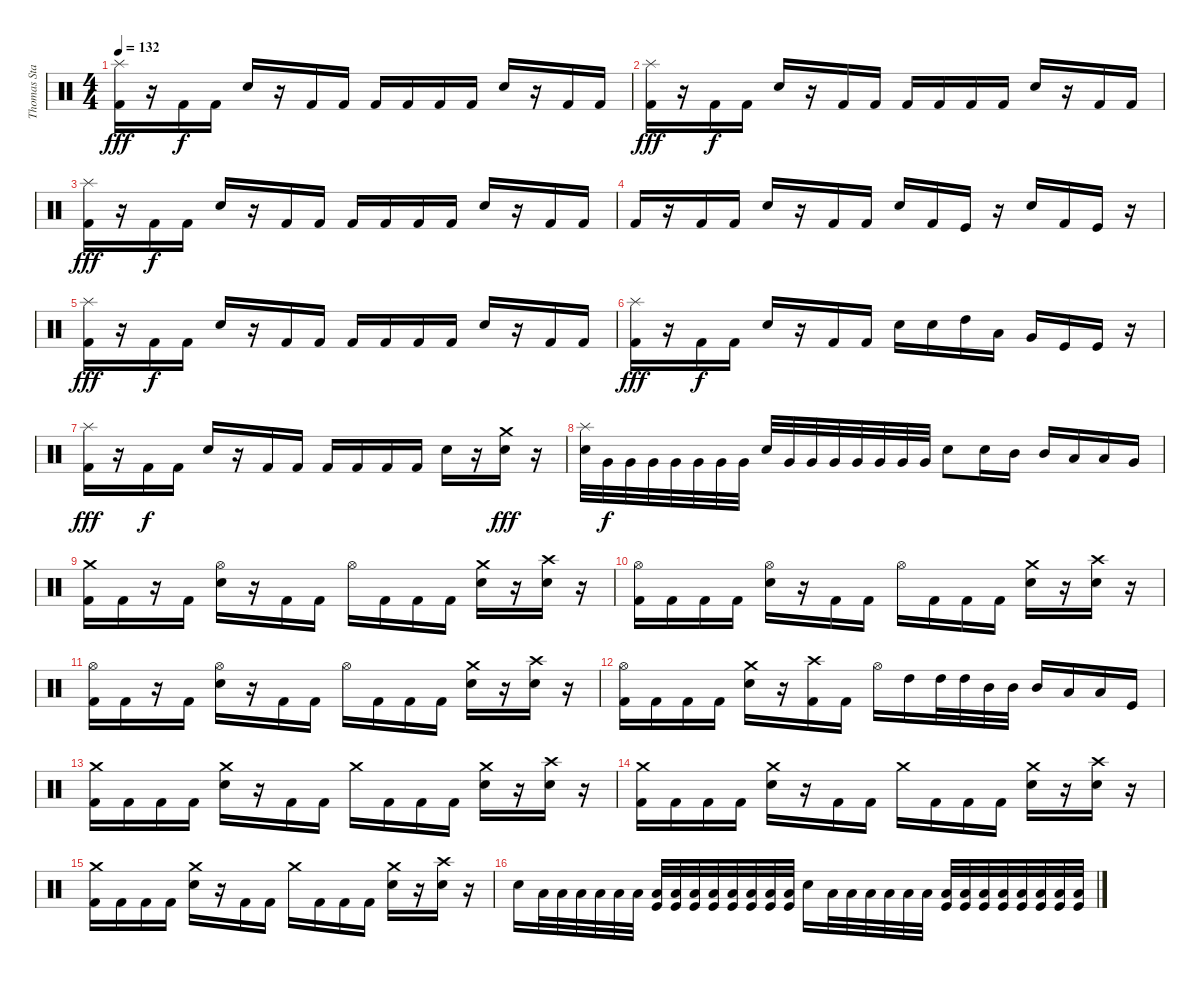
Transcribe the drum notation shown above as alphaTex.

\track ("Thomas Stauch" "Thomas Sta") {instrument percussion}
\staff {score}
\articulation defaults
\ts (4 4)
\tempo 132
\clef neutral
\ks c
("Splash (hit)" "Kick (hit) 2").16{dy fff} r.16 "Kick (hit) 2".16{dy f} "Kick (hit) 2".16 "Electric Snare (hit)".16 r.16 "Kick (hit) 2".16 "Kick (hit) 2".16 "Kick (hit) 2".16 "Kick (hit) 2".16 "Kick (hit) 2".16 "Kick (hit) 2".16 "Electric Snare (hit)".16 r.16 "Kick (hit) 2".16 "Kick (hit) 2".16 |
("Splash (hit)" "Kick (hit) 2").16{dy fff} r.16 "Kick (hit) 2".16{dy f} "Kick (hit) 2".16 "Electric Snare (hit)".16 r.16 "Kick (hit) 2".16 "Kick (hit) 2".16 "Kick (hit) 2".16 "Kick (hit) 2".16 "Kick (hit) 2".16 "Kick (hit) 2".16 "Electric Snare (hit)".16 r.16 "Kick (hit) 2".16 "Kick (hit) 2".16 |
("Splash (hit)" "Kick (hit) 2").16{dy fff} r.16 "Kick (hit) 2".16{dy f} "Kick (hit) 2".16 "Electric Snare (hit)".16 r.16 "Kick (hit) 2".16 "Kick (hit) 2".16 "Kick (hit) 2".16 "Kick (hit) 2".16 "Kick (hit) 2".16 "Kick (hit) 2".16 "Electric Snare (hit)".16 r.16 "Kick (hit) 2".16 "Kick (hit) 2".16 |
"Kick (hit) 2".16 r.16 "Kick (hit) 2".16 "Kick (hit) 2".16 "Electric Snare (hit)".16 r.16 "Kick (hit) 2".16 "Kick (hit) 2".16 "Electric Snare (hit)".16 "Kick (hit) 2".16 "Kick (hit)".16 r.16 "Electric Snare (hit)".16 "Kick (hit) 2".16 "Kick (hit)".16 r.16 |
("Splash (hit)" "Kick (hit) 2").16{dy fff} r.16 "Kick (hit) 2".16{dy f} "Kick (hit) 2".16 "Electric Snare (hit)".16 r.16 "Kick (hit) 2".16 "Kick (hit) 2".16 "Kick (hit) 2".16 "Kick (hit) 2".16 "Kick (hit) 2".16 "Kick (hit) 2".16 "Electric Snare (hit)".16 r.16 "Kick (hit) 2".16 "Kick (hit) 2".16 |
("Splash (hit)" "Kick (hit) 2").16{dy fff} r.16 "Kick (hit) 2".16{dy f} "Kick (hit) 2".16 "Electric Snare (hit)".16 r.16 "Kick (hit) 2".16 "Kick (hit) 2".16 "Electric Snare (hit)".16 "Electric Snare (hit)".16 "High Tom (hit)".16 "Low Tom (hit)".16 "Very Low Tom (hit)".16 "Kick (hit)".16 "Kick (hit)".16 r.16 |
("Splash (hit)" "Kick (hit) 2").16{dy fff} r.16 "Kick (hit) 2".16{dy f} "Kick (hit) 2".16 "Electric Snare (hit)".16 r.16 "Kick (hit) 2".16 "Kick (hit) 2".16 "Kick (hit) 2".16 "Kick (hit) 2".16 "Kick (hit) 2".16 "Kick (hit) 2".16 "Electric Snare (hit)".16 r.16 ("Crash medium (hit)" "Electric Snare (hit)").16{dy fff} r.16 |
("Splash (hit)" "Electric Snare (hit)").32 "Very Low Tom (hit)".32{dy f} "Very Low Tom (hit)".32 "Very Low Tom (hit)".32 "Very Low Tom (hit)".32 "Very Low Tom (hit)".32 "Very Low Tom (hit)".32 "Very Low Tom (hit)".32 "Electric Snare (hit)".32 "Very Low Tom (hit)".32 "Very Low Tom (hit)".32 "Very Low Tom (hit)".32 "Very Low Tom (hit)".32 "Very Low Tom (hit)".32 "Very Low Tom (hit)".32 "Very Low Tom (hit)".32 "Electric Snare (hit)".8 "Electric Snare (hit)".16 "Mid Tom (hit)".16 "Mid Tom (hit)".16 "Low Tom (hit)".16 "Low Tom (hit)".16 "Very Low Tom (hit)".16 |
("Crash medium (hit)" "Kick (hit) 2").16 "Kick (hit) 2".16 r.16 "Kick (hit) 2".16 ("Hi-Hat (open)" "Electric Snare (hit)").16 r.16 "Kick (hit) 2".16 "Kick (hit) 2".16 "Hi-Hat (open)".16 "Kick (hit) 2".16 "Kick (hit) 2".16 "Kick (hit) 2".16 ("Crash medium (hit)" "Electric Snare (hit)").16 r.16 ("Crash high (hit)" "Electric Snare (hit)").16 r.16 |
("Hi-Hat (open)" "Kick (hit) 2").16 "Kick (hit) 2".16 "Kick (hit) 2".16 "Kick (hit) 2".16 ("Hi-Hat (open)" "Electric Snare (hit)").16 r.16 "Kick (hit) 2".16 "Kick (hit) 2".16 "Hi-Hat (open)".16 "Kick (hit) 2".16 "Kick (hit) 2".16 "Kick (hit) 2".16 ("Crash medium (hit)" "Electric Snare (hit)").16 r.16 ("Crash high (hit)" "Electric Snare (hit)").16 r.16 |
("Hi-Hat (open)" "Kick (hit) 2").16 "Kick (hit) 2".16 r.16 "Kick (hit) 2".16 ("Hi-Hat (open)" "Electric Snare (hit)").16 r.16 "Kick (hit) 2".16 "Kick (hit) 2".16 "Hi-Hat (open)".16 "Kick (hit) 2".16 "Kick (hit) 2".16 "Kick (hit) 2".16 ("Crash medium (hit)" "Electric Snare (hit)").16 r.16 ("Crash high (hit)" "Electric Snare (hit)").16 r.16 |
("Hi-Hat (open)" "Kick (hit) 2").16 "Kick (hit) 2".16 "Kick (hit) 2".16 "Kick (hit) 2".16 ("Crash medium (hit)" "Electric Snare (hit)").16 r.16 ("Crash high (hit)" "Kick (hit) 2").16 "Kick (hit) 2".16 "Hi-Hat (open)".16 "High Tom (hit)".16 "High Tom (hit)".32 "High Tom (hit)".32 "Mid Tom (hit)".32 "Mid Tom (hit)".32 "Mid Tom (hit)".16 "Low Tom (hit)".16 "Low Tom (hit)".16 "Kick (hit)".16 |
("Crash medium (hit)" "Kick (hit) 2").16 "Kick (hit) 2".16 "Kick (hit) 2".16 "Kick (hit) 2".16 ("Crash medium (hit)" "Electric Snare (hit)").16 r.16 "Kick (hit) 2".16 "Kick (hit) 2".16 "Crash medium (hit)".16 "Kick (hit) 2".16 "Kick (hit) 2".16 "Kick (hit) 2".16 ("Crash medium (hit)" "Electric Snare (hit)").16 r.16 ("Crash high (hit)" "Electric Snare (hit)").16 r.16 |
("Crash medium (hit)" "Kick (hit) 2").16 "Kick (hit) 2".16 "Kick (hit) 2".16 "Kick (hit) 2".16 ("Crash medium (hit)" "Electric Snare (hit)").16 r.16 "Kick (hit) 2".16 "Kick (hit) 2".16 "Crash medium (hit)".16 "Kick (hit) 2".16 "Kick (hit) 2".16 "Kick (hit) 2".16 ("Crash medium (hit)" "Electric Snare (hit)").16 r.16 ("Crash high (hit)" "Electric Snare (hit)").16 r.16 |
("Crash medium (hit)" "Kick (hit) 2").16 "Kick (hit) 2".16 "Kick (hit) 2".16 "Kick (hit) 2".16 ("Crash medium (hit)" "Electric Snare (hit)").16 r.16 "Kick (hit) 2".16 "Kick (hit) 2".16 "Crash medium (hit)".16 "Kick (hit) 2".16 "Kick (hit) 2".16 "Kick (hit) 2".16 ("Crash medium (hit)" "Electric Snare (hit)").16 r.16 ("Crash high (hit)" "Electric Snare (hit)").16 r.16 |
"Electric Snare (hit)".16 "Low Tom (hit)".32 "Low Tom (hit)".32 "Low Tom (hit)".32 "Low Tom (hit)".32 "Low Tom (hit)".32 "Low Tom (hit)".32 ("Low Tom (hit)" "Kick (hit)").32 ("Low Tom (hit)" "Kick (hit)").32 ("Low Tom (hit)" "Kick (hit)").32 ("Low Tom (hit)" "Kick (hit)").32 ("Low Tom (hit)" "Kick (hit)").32 ("Low Tom (hit)" "Kick (hit)").32 ("Low Tom (hit)" "Kick (hit)").32 ("Low Tom (hit)" "Kick (hit)").32 "Electric Snare (hit)".16 "Low Tom (hit)".32 "Low Tom (hit)".32 "Low Tom (hit)".32 "Low Tom (hit)".32 "Low Tom (hit)".32 "Low Tom (hit)".32 ("Low Tom (hit)" "Kick (hit)").32 ("Low Tom (hit)" "Kick (hit)").32 ("Low Tom (hit)" "Kick (hit)").32 ("Low Tom (hit)" "Kick (hit)").32 ("Low Tom (hit)" "Kick (hit)").32 ("Low Tom (hit)" "Kick (hit)").32 ("Low Tom (hit)" "Kick (hit)").32 ("Low Tom (hit)" "Kick (hit)").32
